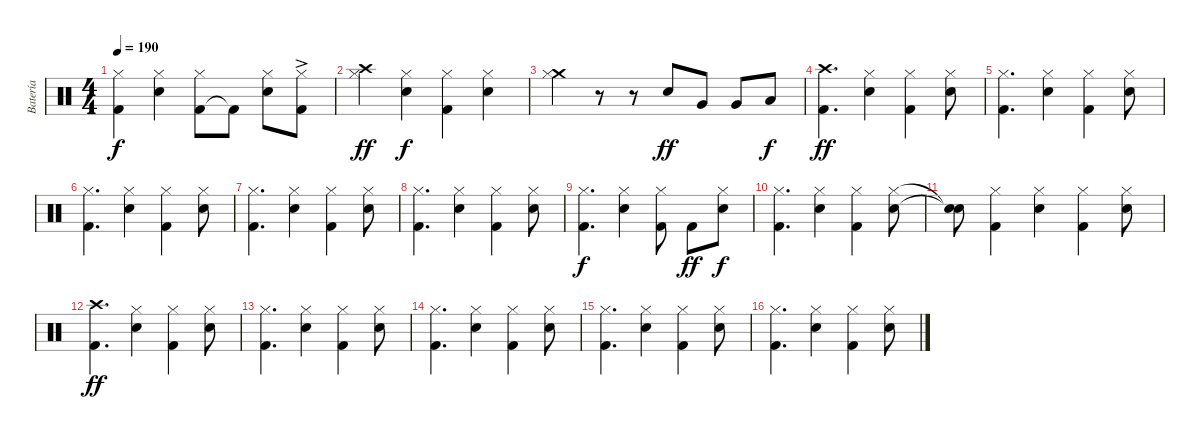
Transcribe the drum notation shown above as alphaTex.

\track ("Batería" "Batería") {instrument percussion}
\staff {score}
\articulation defaults
\ts (4 4)
\tempo 190
\clef neutral
\ks c
("Kick (hit) 2" "Hi-Hat (closed)").4{dy f} ("Electric Snare (hit)" "Hi-Hat (closed)").4 ("Kick (hit) 2" "Hi-Hat (closed)").8 "Kick (hit) 2"{t}.8 ("Electric Snare (hit)" "Hi-Hat (closed)").8 ("Kick (hit) 2"{ac} "Hi-Hat (closed)").8 |
("Crash high (hit)" "Hi-Hat (closed)").4{dy ff} ("Electric Snare (hit)" "Hi-Hat (closed)").4{dy f} ("Kick (hit) 2" "Hi-Hat (closed)").4 ("Electric Snare (hit)" "Hi-Hat (closed)").4 |
("Crash medium (hit)" "Hi-Hat (closed)").4 r.8 r.8 "Electric Snare (hit)".8{dy ff} "Very Low Tom (hit)".8 "Very Low Tom (hit)".8 "Low Floor Tom (hit)".8{dy f} |
("Crash high (hit)" "Kick (hit) 2").4{d dy ff} ("Electric Snare (hit)" "Hi-Hat (closed)").4 ("Kick (hit) 2" "Hi-Hat (closed)").4 ("Electric Snare (hit)" "Hi-Hat (closed)").8 |
("Kick (hit) 2" "Hi-Hat (closed)").4{d} ("Electric Snare (hit)" "Hi-Hat (closed)").4 ("Kick (hit) 2" "Hi-Hat (closed)").4 ("Electric Snare (hit)" "Hi-Hat (closed)").8 |
("Kick (hit) 2" "Hi-Hat (closed)").4{d} ("Electric Snare (hit)" "Hi-Hat (closed)").4 ("Kick (hit) 2" "Hi-Hat (closed)").4 ("Electric Snare (hit)" "Hi-Hat (closed)").8 |
("Kick (hit) 2" "Hi-Hat (closed)").4{d} ("Electric Snare (hit)" "Hi-Hat (closed)").4 ("Kick (hit) 2" "Hi-Hat (closed)").4 ("Electric Snare (hit)" "Hi-Hat (closed)").8 |
("Kick (hit) 2" "Hi-Hat (closed)").4{d} ("Electric Snare (hit)" "Hi-Hat (closed)").4 ("Kick (hit) 2" "Hi-Hat (closed)").4 ("Electric Snare (hit)" "Hi-Hat (closed)").8 |
("Kick (hit) 2" "Hi-Hat (closed)").4{d dy f} ("Electric Snare (hit)" "Hi-Hat (closed)").4 ("Kick (hit) 2" "Hi-Hat (closed)").8 "Kick (hit) 2".8{dy ff} ("Electric Snare (hit)" "Hi-Hat (closed)").8{dy f} |
("Kick (hit) 2" "Hi-Hat (closed)").4{d} ("Electric Snare (hit)" "Hi-Hat (closed)").4 ("Kick (hit) 2" "Hi-Hat (closed)").4 ("Electric Snare (hit)" "Hi-Hat (closed)").8 |
("Snare (hit)"{t} "Snare (hit)"{t}).8 ("Kick (hit) 2" "Hi-Hat (closed)").4 ("Electric Snare (hit)" "Hi-Hat (closed)").4 ("Kick (hit) 2" "Hi-Hat (closed)").4 ("Electric Snare (hit)" "Hi-Hat (closed)").8 |
("Crash high (hit)" "Kick (hit) 2").4{d dy ff} ("Electric Snare (hit)" "Hi-Hat (closed)").4 ("Kick (hit) 2" "Hi-Hat (closed)").4 ("Electric Snare (hit)" "Hi-Hat (closed)").8 |
("Kick (hit) 2" "Hi-Hat (closed)").4{d} ("Electric Snare (hit)" "Hi-Hat (closed)").4 ("Kick (hit) 2" "Hi-Hat (closed)").4 ("Electric Snare (hit)" "Hi-Hat (closed)").8 |
("Kick (hit) 2" "Hi-Hat (closed)").4{d} ("Electric Snare (hit)" "Hi-Hat (closed)").4 ("Kick (hit) 2" "Hi-Hat (closed)").4 ("Electric Snare (hit)" "Hi-Hat (closed)").8 |
("Kick (hit) 2" "Hi-Hat (closed)").4{d} ("Electric Snare (hit)" "Hi-Hat (closed)").4 ("Kick (hit) 2" "Hi-Hat (closed)").4 ("Electric Snare (hit)" "Hi-Hat (closed)").8 |
("Kick (hit) 2" "Hi-Hat (closed)").4{d} ("Electric Snare (hit)" "Hi-Hat (closed)").4 ("Kick (hit) 2" "Hi-Hat (closed)").4 ("Electric Snare (hit)" "Hi-Hat (closed)").8
